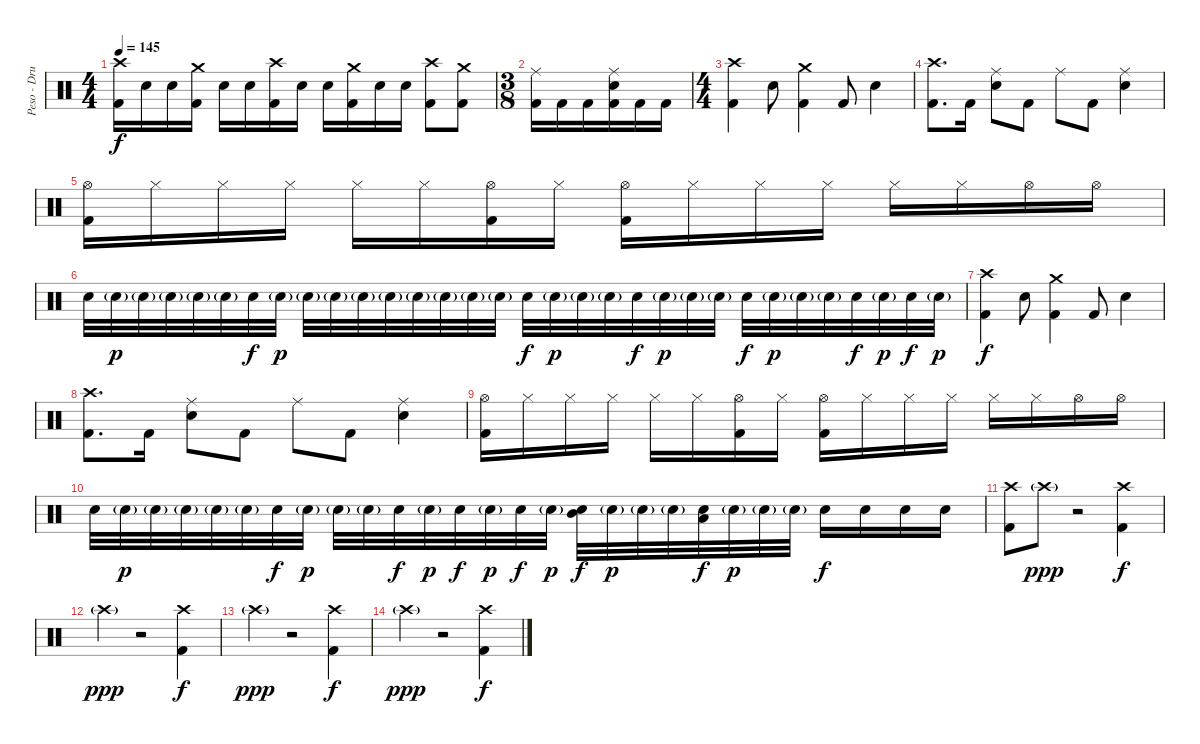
\track ("Peso - Drums" "Peso - Dru") {instrument percussion}
\staff {score}
\articulation defaults
\ts (4 4)
\tempo 145
\clef neutral
\ks c
("Crash high (hit)" "Kick (hit) 2").16{dy f} "Electric Snare (hit)".16 "Electric Snare (hit)".16 ("Crash medium (hit)" "Kick (hit) 2").16 "Electric Snare (hit)".16 "Electric Snare (hit)".16 ("Crash high (hit)" "Kick (hit) 2").16 "Electric Snare (hit)".16 "Electric Snare (hit)".16 ("Crash medium (hit)" "Kick (hit) 2").16 "Electric Snare (hit)".16 "Electric Snare (hit)".16 ("Crash high (hit)" "Kick (hit) 2").8 ("Crash medium (hit)" "Kick (hit) 2").8 |
\ts (3 8)
("Ride (middle)" "Kick (hit) 2").16 "Kick (hit) 2".16 "Kick (hit) 2".16 ("Ride (middle)" "Electric Snare (hit)" "Kick (hit) 2").16 "Kick (hit) 2".16 "Kick (hit) 2".16 |
\ts (4 4)
("Crash high (hit)" "Kick (hit) 2").4 "Electric Snare (hit)".8 ("Crash medium (hit)" "Kick (hit) 2").4 "Kick (hit) 2".8 "Electric Snare (hit)".4 |
("Crash high (hit)" "Kick (hit) 2").8{d} "Kick (hit) 2".16 ("Ride (middle)" "Electric Snare (hit)").8 "Kick (hit) 2".8 "Ride (middle)".8 "Kick (hit) 2".8 ("Ride (middle)" "Electric Snare (hit)").4 |
("Hi-Hat (open)" "Kick (hit) 2").16 "Hi-Hat (closed)".16 "Hi-Hat (closed)".16 "Hi-Hat (closed)".16 "Hi-Hat (closed)".16 "Hi-Hat (closed)".16 ("Hi-Hat (open)" "Kick (hit) 2").16 "Hi-Hat (closed)".16 ("Hi-Hat (open)" "Kick (hit) 2").16 "Hi-Hat (closed)".16 "Hi-Hat (closed)".16 "Hi-Hat (closed)".16 "Hi-Hat (closed)".16 "Hi-Hat (closed)".16 "Hi-Hat (open)".16 "Hi-Hat (open)".16 |
"Electric Snare (hit)".32 "Electric Snare (hit)"{g}.32{dy p} "Electric Snare (hit)"{g}.32 "Electric Snare (hit)"{g}.32 "Electric Snare (hit)"{g}.32 "Electric Snare (hit)"{g}.32 "Electric Snare (hit)".32{dy f} "Electric Snare (hit)"{g}.32{dy p} "Electric Snare (hit)"{g}.32 "Electric Snare (hit)"{g}.32 "Electric Snare (hit)"{g}.32 "Electric Snare (hit)"{g}.32 "Electric Snare (hit)"{g}.32 "Electric Snare (hit)"{g}.32 "Electric Snare (hit)"{g}.32 "Electric Snare (hit)"{g}.32 "Electric Snare (hit)".32{dy f} "Electric Snare (hit)"{g}.32{dy p} "Electric Snare (hit)"{g}.32 "Electric Snare (hit)"{g}.32 "Electric Snare (hit)".32{dy f} "Electric Snare (hit)"{g}.32{dy p} "Electric Snare (hit)"{g}.32 "Electric Snare (hit)"{g}.32 "Electric Snare (hit)".32{dy f} "Electric Snare (hit)"{g}.32{dy p} "Electric Snare (hit)"{g}.32 "Electric Snare (hit)"{g}.32 "Electric Snare (hit)".32{dy f} "Electric Snare (hit)"{g}.32{dy p} "Electric Snare (hit)".32{dy f} "Electric Snare (hit)"{g}.32{dy p} |
("Crash high (hit)" "Kick (hit) 2").4{dy f} "Electric Snare (hit)".8 ("Crash medium (hit)" "Kick (hit) 2").4 "Kick (hit) 2".8 "Electric Snare (hit)".4 |
("Crash high (hit)" "Kick (hit) 2").8{d} "Kick (hit) 2".16 ("Ride (middle)" "Electric Snare (hit)").8 "Kick (hit) 2".8 "Ride (middle)".8 "Kick (hit) 2".8 ("Ride (middle)" "Electric Snare (hit)").4 |
("Hi-Hat (open)" "Kick (hit) 2").16 "Hi-Hat (closed)".16 "Hi-Hat (closed)".16 "Hi-Hat (closed)".16 "Hi-Hat (closed)".16 "Hi-Hat (closed)".16 ("Hi-Hat (open)" "Kick (hit) 2").16 "Hi-Hat (closed)".16 ("Hi-Hat (open)" "Kick (hit) 2").16 "Hi-Hat (closed)".16 "Hi-Hat (closed)".16 "Hi-Hat (closed)".16 "Hi-Hat (closed)".16 "Hi-Hat (closed)".16 "Hi-Hat (open)".16 "Hi-Hat (open)".16 |
"Electric Snare (hit)".32 "Electric Snare (hit)"{g}.32{dy p} "Electric Snare (hit)"{g}.32 "Electric Snare (hit)"{g}.32 "Electric Snare (hit)"{g}.32 "Electric Snare (hit)"{g}.32 "Electric Snare (hit)".32{dy f} "Electric Snare (hit)"{g}.32{dy p} "Electric Snare (hit)"{g}.32 "Electric Snare (hit)"{g}.32 "Electric Snare (hit)".32{dy f} "Electric Snare (hit)"{g}.32{dy p} "Electric Snare (hit)".32{dy f} "Electric Snare (hit)"{g}.32{dy p} "Electric Snare (hit)".32{dy f} "Electric Snare (hit)"{g}.32{dy p} ("Mid Tom (hit)" "Electric Snare (hit)").32{dy f} "Electric Snare (hit)"{g}.32{dy p} "Electric Snare (hit)"{g}.32 "Electric Snare (hit)"{g}.32 ("Low Tom (hit)" "Electric Snare (hit)").32{dy f} "Electric Snare (hit)"{g}.32{dy p} "Electric Snare (hit)"{g}.32 "Electric Snare (hit)"{g}.32 "Electric Snare (hit)".16{dy f} "Electric Snare (hit)".16 "Electric Snare (hit)".16 "Electric Snare (hit)".16 |
("Crash high (hit)" "Kick (hit) 2").8 "Crash high (hit)"{g}.8{dy ppp} r.2 ("Crash high (hit)" "Kick (hit) 2").4{dy f} |
"Crash high (hit)"{g}.4{dy ppp} r.2 ("Crash high (hit)" "Kick (hit) 2").4{dy f} |
"Crash high (hit)"{g}.4{dy ppp} r.2 ("Crash high (hit)" "Kick (hit) 2").4{dy f} |
"Crash high (hit)"{g}.4{dy ppp} r.2 ("Crash high (hit)" "Kick (hit) 2").4{dy f}
